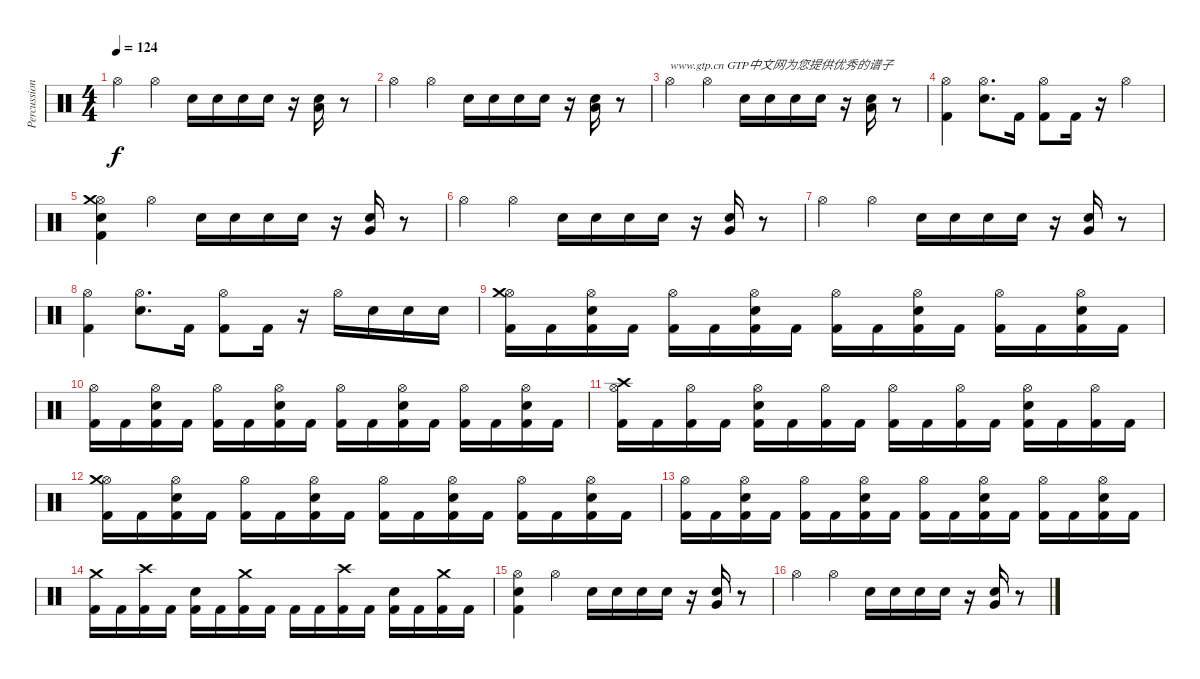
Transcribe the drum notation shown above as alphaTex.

\track ("Percussion" "Percussion") {instrument percussion}
\staff {score}
\articulation defaults
\ts (4 4)
\tempo 124
\clef neutral
\ks c "Hi-Hat (open)".4{dy f} "Hi-Hat (open)".4 "Electric Snare (hit)".16 "Electric Snare (hit)".16 "Electric Snare (hit)".16 "Electric Snare (hit)".16
r.16 ("Electric Snare (hit)" "Low Floor Tom (hit)").16 r.8 |
"Hi-Hat (open)".4 "Hi-Hat (open)".4 "Electric Snare (hit)".16 "Electric Snare (hit)".16 "Electric Snare (hit)".16 "Electric Snare (hit)".16 r.16 ("Electric Snare (hit)" "Low Floor Tom (hit)").16 r.8 |
"Hi-Hat (open)".4{txt "www.gtp.cn GTP中文网为您提供优秀的谱子"} "Hi-Hat (open)".4 "Electric Snare (hit)".16 "Electric Snare (hit)".16 "Electric Snare (hit)".16 "Electric Snare (hit)".16 r.16 ("Electric Snare (hit)" "Low Floor Tom (hit)").16 r.8 |
("Kick (hit) 2" "Hi-Hat (open)").4 ("Electric Snare (hit)" "Hi-Hat (open)").8{d} "Kick (hit) 2".16 ("Kick (hit) 2" "Hi-Hat (open)").8 "Kick (hit) 2".16 r.16 "Hi-Hat (open)".4 |
("Kick (hit) 2" "Electric Snare (hit)" "Hi-Hat (open)" "Crash medium (hit)").4 "Hi-Hat (open)".4 "Electric Snare (hit)".16 "Electric Snare (hit)".16 "Electric Snare (hit)".16 "Electric Snare (hit)".16 r.16 ("Electric Snare (hit)" "Very Low Tom (hit)").16 r.8 |
"Hi-Hat (open)".4 "Hi-Hat (open)".4 "Electric Snare (hit)".16 "Electric Snare (hit)".16 "Electric Snare (hit)".16 "Electric Snare (hit)".16 r.16 ("Electric Snare (hit)" "Very Low Tom (hit)").16 r.8 |
"Hi-Hat (open)".4 "Hi-Hat (open)".4 "Electric Snare (hit)".16 "Electric Snare (hit)".16 "Electric Snare (hit)".16 "Electric Snare (hit)".16 r.16 ("Electric Snare (hit)" "Very Low Tom (hit)").16 r.8 |
("Kick (hit) 2" "Hi-Hat (open)").4 ("Electric Snare (hit)" "Hi-Hat (open)").8{d} "Kick (hit) 2".16 ("Kick (hit) 2" "Hi-Hat (open)").8 "Kick (hit) 2".16 r.16 "Hi-Hat (open)".16 "Electric Snare (hit)".16 "Electric Snare (hit)".16 "Electric Snare (hit)".16 |
("Kick (hit) 2" "Hi-Hat (open)" "Crash medium (hit)").16 "Kick (hit) 2".16 ("Kick (hit) 2" "Electric Snare (hit)" "Hi-Hat (open)").16 "Kick (hit) 2".16 ("Kick (hit) 2" "Hi-Hat (open)").16 "Kick (hit) 2".16 ("Kick (hit) 2" "Electric Snare (hit)" "Hi-Hat (open)").16 "Kick (hit) 2".16 ("Kick (hit) 2" "Hi-Hat (open)").16 "Kick (hit) 2".16 ("Kick (hit) 2" "Electric Snare (hit)" "Hi-Hat (open)").16 "Kick (hit) 2".16 ("Kick (hit) 2" "Hi-Hat (open)").16 "Kick (hit) 2".16 ("Kick (hit) 2" "Electric Snare (hit)" "Hi-Hat (open)").16 "Kick (hit) 2".16 |
("Kick (hit) 2" "Hi-Hat (open)").16 "Kick (hit) 2".16 ("Kick (hit) 2" "Electric Snare (hit)" "Hi-Hat (open)").16 "Kick (hit) 2".16 ("Kick (hit) 2" "Hi-Hat (open)").16 "Kick (hit) 2".16 ("Kick (hit) 2" "Electric Snare (hit)" "Hi-Hat (open)").16 "Kick (hit) 2".16 ("Kick (hit) 2" "Hi-Hat (open)").16 "Kick (hit) 2".16 ("Kick (hit) 2" "Electric Snare (hit)" "Hi-Hat (open)").16 "Kick (hit) 2".16 ("Kick (hit) 2" "Hi-Hat (open)").16 "Kick (hit) 2".16 ("Kick (hit) 2" "Electric Snare (hit)" "Hi-Hat (open)").16 "Kick (hit) 2".16 |
("Kick (hit) 2" "Hi-Hat (open)" "Crash high (hit)").16 "Kick (hit) 2".16 ("Kick (hit) 2" "Hi-Hat (open)").16 "Kick (hit) 2".16 ("Kick (hit) 2" "Electric Snare (hit)" "Hi-Hat (open)").16 "Kick (hit) 2".16 ("Kick (hit) 2" "Hi-Hat (open)").16 "Kick (hit) 2".16 ("Kick (hit) 2" "Hi-Hat (open)").16 "Kick (hit) 2".16 ("Kick (hit) 2" "Hi-Hat (open)").16 "Kick (hit) 2".16 ("Kick (hit) 2" "Electric Snare (hit)" "Hi-Hat (open)").16 "Kick (hit) 2".16 ("Kick (hit) 2" "Hi-Hat (open)").16 "Kick (hit) 2".16 |
("Kick (hit) 2" "Hi-Hat (open)" "Crash medium (hit)").16 "Kick (hit) 2".16 ("Kick (hit) 2" "Electric Snare (hit)" "Hi-Hat (open)").16 "Kick (hit) 2".16 ("Kick (hit) 2" "Hi-Hat (open)").16 "Kick (hit) 2".16 ("Kick (hit) 2" "Electric Snare (hit)" "Hi-Hat (open)").16 "Kick (hit) 2".16 ("Kick (hit) 2" "Hi-Hat (open)").16 "Kick (hit) 2".16 ("Kick (hit) 2" "Electric Snare (hit)" "Hi-Hat (open)").16 "Kick (hit) 2".16 ("Kick (hit) 2" "Hi-Hat (open)").16 "Kick (hit) 2".16 ("Kick (hit) 2" "Electric Snare (hit)" "Hi-Hat (open)").16 "Kick (hit) 2".16 |
("Kick (hit) 2" "Hi-Hat (open)").16 "Kick (hit) 2".16 ("Kick (hit) 2" "Electric Snare (hit)" "Hi-Hat (open)").16 "Kick (hit) 2".16 ("Kick (hit) 2" "Hi-Hat (open)").16 "Kick (hit) 2".16 ("Kick (hit) 2" "Electric Snare (hit)" "Hi-Hat (open)").16 "Kick (hit) 2".16 ("Kick (hit) 2" "Hi-Hat (open)").16 "Kick (hit) 2".16 ("Kick (hit) 2" "Electric Snare (hit)" "Hi-Hat (open)").16 "Kick (hit) 2".16 ("Kick (hit) 2" "Hi-Hat (open)").16 "Kick (hit) 2".16 ("Kick (hit) 2" "Electric Snare (hit)" "Hi-Hat (open)").16 "Kick (hit) 2".16 |
("Kick (hit) 2" "Crash medium (hit)").16 "Kick (hit) 2".16 ("Kick (hit) 2" "Crash high (hit)").16 "Kick (hit) 2".16 ("Kick (hit) 2" "Electric Snare (hit)").16 "Kick (hit) 2".16 ("Kick (hit) 2" "Crash medium (hit)").16 "Kick (hit) 2".16 "Kick (hit) 2".16 "Kick (hit) 2".16 ("Kick (hit) 2" "Crash high (hit)").16 "Kick (hit) 2".16 ("Kick (hit) 2" "Electric Snare (hit)").16 "Kick (hit) 2".16 ("Kick (hit) 2" "Crash medium (hit)").16 "Kick (hit) 2".16 |
("Kick (hit) 2" "Electric Snare (hit)" "Hi-Hat (open)").4 "Hi-Hat (open)".4 "Electric Snare (hit)".16 "Electric Snare (hit)".16 "Electric Snare (hit)".16 "Electric Snare (hit)".16 r.16 ("Electric Snare (hit)" "Very Low Tom (hit)").16 r.8 |
"Hi-Hat (open)".4 "Hi-Hat (open)".4 "Electric Snare (hit)".16 "Electric Snare (hit)".16 "Electric Snare (hit)".16 "Electric Snare (hit)".16 r.16 ("Electric Snare (hit)" "Very Low Tom (hit)").16 r.8
